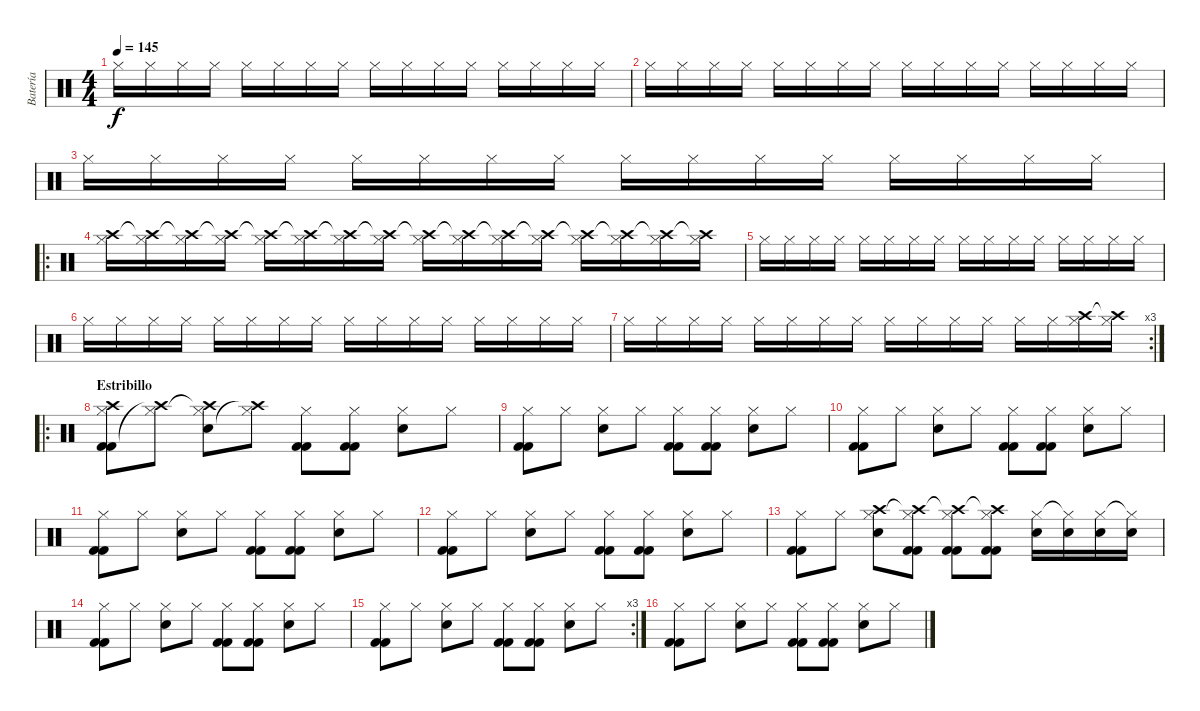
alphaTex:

\track ("Batería" "Batería") {instrument percussion}
\staff {score}
\articulation defaults
\ts (4 4)
\tempo 145
\clef neutral
\ks c "Hi-Hat (closed)".16{dy f} "Hi-Hat (closed)".16 "Hi-Hat (closed)".16 "Hi-Hat (closed)".16 "Hi-Hat (closed)".16 "Hi-Hat (closed)".16 "Hi-Hat (closed)".16 "Hi-Hat (closed)".16 "Hi-Hat (closed)".16 "Hi-Hat (closed)".16 "Hi-Hat (closed)".16 "Hi-Hat (closed)".16 "Hi-Hat (closed)".16 "Hi-Hat (closed)".16 "Hi-Hat (closed)".16 "Hi-Hat (closed)".16
|
"Hi-Hat (closed)".16 "Hi-Hat (closed)".16 "Hi-Hat (closed)".16 "Hi-Hat (closed)".16 "Hi-Hat (closed)".16 "Hi-Hat (closed)".16 "Hi-Hat (closed)".16 "Hi-Hat (closed)".16 "Hi-Hat (closed)".16 "Hi-Hat (closed)".16 "Hi-Hat (closed)".16 "Hi-Hat (closed)".16 "Hi-Hat (closed)".16 "Hi-Hat (closed)".16 "Hi-Hat (closed)".16 "Hi-Hat (closed)".16 |
"Hi-Hat (closed)".16 "Hi-Hat (closed)".16 "Hi-Hat (closed)".16 "Hi-Hat (closed)".16 "Hi-Hat (closed)".16 "Hi-Hat (closed)".16 "Hi-Hat (closed)".16 "Hi-Hat (closed)".16 "Hi-Hat (closed)".16 "Hi-Hat (closed)".16 "Hi-Hat (closed)".16 "Hi-Hat (closed)".16 "Hi-Hat (closed)".16 "Hi-Hat (closed)".16 "Hi-Hat (closed)".16 "Hi-Hat (closed)".16 |
\ro
("Crash high (hit)" "Hi-Hat (closed)").16 ("Crash high (hit)"{t} "Hi-Hat (closed)").16 ("Crash high (hit)"{t} "Hi-Hat (closed)").16 ("Crash high (hit)"{t} "Hi-Hat (closed)").16 ("Crash high (hit)"{t} "Hi-Hat (closed)").16 ("Crash high (hit)"{t} "Hi-Hat (closed)").16 ("Crash high (hit)"{t} "Hi-Hat (closed)").16 ("Crash high (hit)"{t} "Hi-Hat (closed)").16 ("Crash high (hit)"{t} "Hi-Hat (closed)").16 ("Crash high (hit)"{t} "Hi-Hat (closed)").16 ("Crash high (hit)"{t} "Hi-Hat (closed)").16 ("Crash high (hit)"{t} "Hi-Hat (closed)").16 ("Crash high (hit)"{t} "Hi-Hat (closed)").16 ("Crash high (hit)"{t} "Hi-Hat (closed)").16 ("Crash high (hit)"{t} "Hi-Hat (closed)").16 ("Crash high (hit)"{t} "Hi-Hat (closed)").16 |
"Hi-Hat (closed)".16 "Hi-Hat (closed)".16 "Hi-Hat (closed)".16 "Hi-Hat (closed)".16 "Hi-Hat (closed)".16 "Hi-Hat (closed)".16 "Hi-Hat (closed)".16 "Hi-Hat (closed)".16 "Hi-Hat (closed)".16 "Hi-Hat (closed)".16 "Hi-Hat (closed)".16 "Hi-Hat (closed)".16 "Hi-Hat (closed)".16 "Hi-Hat (closed)".16 "Hi-Hat (closed)".16 "Hi-Hat (closed)".16 |
"Hi-Hat (closed)".16 "Hi-Hat (closed)".16 "Hi-Hat (closed)".16 "Hi-Hat (closed)".16 "Hi-Hat (closed)".16 "Hi-Hat (closed)".16 "Hi-Hat (closed)".16 "Hi-Hat (closed)".16 "Hi-Hat (closed)".16 "Hi-Hat (closed)".16 "Hi-Hat (closed)".16 "Hi-Hat (closed)".16 "Hi-Hat (closed)".16 "Hi-Hat (closed)".16 "Hi-Hat (closed)".16 "Hi-Hat (closed)".16 |
\rc 3 "Hi-Hat (closed)".16 "Hi-Hat (closed)".16 "Hi-Hat (closed)".16 "Hi-Hat (closed)".16 "Hi-Hat (closed)".16 "Hi-Hat (closed)".16 "Hi-Hat (closed)".16 "Hi-Hat (closed)".16 "Hi-Hat (closed)".16 "Hi-Hat (closed)".16 "Hi-Hat (closed)".16 "Hi-Hat (closed)".16 "Hi-Hat (closed)".16 "Hi-Hat (closed)".16
("Crash high (hit)" "Hi-Hat (closed)").16 ("Crash high (hit)"{t} "Hi-Hat (closed)").16 |
\ro
\section ("" "Estribillo")
("Kick (hit) 2" "Kick (hit) 2" "Crash high (hit)" "Hi-Hat (closed)").8 ("Crash high (hit)"{t} "Hi-Hat (closed)").8 ("Snare (hit) 2" "Crash high (hit)"{t} "Hi-Hat (closed)").8 ("Crash high (hit)"{t} "Hi-Hat (closed)").8 ("Kick (hit) 2" "Kick (hit) 2" "Hi-Hat (closed)").8 ("Kick (hit) 2" "Kick (hit) 2" "Hi-Hat (closed)").8 ("Snare (hit) 2" "Hi-Hat (closed)").8 "Hi-Hat (closed)".8 |
("Kick (hit) 2" "Kick (hit) 2" "Hi-Hat (closed)").8 "Hi-Hat (closed)".8 ("Snare (hit) 2" "Hi-Hat (closed)").8 "Hi-Hat (closed)".8 ("Kick (hit) 2" "Kick (hit) 2" "Hi-Hat (closed)").8 ("Kick (hit) 2" "Kick (hit) 2" "Hi-Hat (closed)").8 ("Snare (hit) 2" "Hi-Hat (closed)").8 "Hi-Hat (closed)".8 |
("Kick (hit) 2" "Kick (hit) 2" "Hi-Hat (closed)").8 "Hi-Hat (closed)".8 ("Snare (hit) 2" "Hi-Hat (closed)").8 "Hi-Hat (closed)".8 ("Kick (hit) 2" "Kick (hit) 2" "Hi-Hat (closed)").8 ("Kick (hit) 2" "Kick (hit) 2" "Hi-Hat (closed)").8 ("Snare (hit) 2" "Hi-Hat (closed)").8 "Hi-Hat (closed)".8 |
("Kick (hit) 2" "Kick (hit) 2" "Hi-Hat (closed)").8 "Hi-Hat (closed)".8 ("Snare (hit) 2" "Hi-Hat (closed)").8 "Hi-Hat (closed)".8 ("Kick (hit) 2" "Kick (hit) 2" "Hi-Hat (closed)").8 ("Kick (hit) 2" "Kick (hit) 2" "Hi-Hat (closed)").8 ("Snare (hit) 2" "Hi-Hat (closed)").8 "Hi-Hat (closed)".8 |
("Kick (hit) 2" "Kick (hit) 2" "Hi-Hat (closed)").8 "Hi-Hat (closed)".8 ("Snare (hit) 2" "Hi-Hat (closed)").8 "Hi-Hat (closed)".8 ("Kick (hit) 2" "Kick (hit) 2" "Hi-Hat (closed)").8 ("Kick (hit) 2" "Kick (hit) 2" "Hi-Hat (closed)").8 ("Snare (hit) 2" "Hi-Hat (closed)").8 "Hi-Hat (closed)".8 |
("Kick (hit) 2" "Kick (hit) 2" "Hi-Hat (closed)").8 "Hi-Hat (closed)".8 ("Snare (hit) 2" "Crash high (hit)" "Hi-Hat (closed)").8 ("Kick (hit) 2" "Kick (hit) 2" "Crash high (hit)"{t} "Hi-Hat (closed)").8 ("Kick (hit) 2" "Kick (hit) 2" "Crash high (hit)"{t} "Hi-Hat (closed)").8 ("Kick (hit) 2" "Kick (hit) 2" "Crash high (hit)"{t} "Hi-Hat (closed)").8 ("Snare (hit) 2" "Hi-Hat (closed)").16 ("Snare (hit) 2" "Hi-Hat (closed)"{t}).16 ("Snare (hit) 2" "Hi-Hat (closed)").16 ("Snare (hit) 2" "Hi-Hat (closed)"{t}).16 |
("Kick (hit) 2" "Kick (hit) 2" "Hi-Hat (closed)").8 "Hi-Hat (closed)".8 ("Snare (hit) 2" "Hi-Hat (closed)").8 "Hi-Hat (closed)".8 ("Kick (hit) 2" "Kick (hit) 2" "Hi-Hat (closed)").8 ("Kick (hit) 2" "Kick (hit) 2" "Hi-Hat (closed)").8 ("Snare (hit) 2" "Hi-Hat (closed)").8 "Hi-Hat (closed)".8 |
\rc 3
("Kick (hit) 2" "Kick (hit) 2" "Hi-Hat (closed)").8 "Hi-Hat (closed)".8 ("Snare (hit) 2" "Hi-Hat (closed)").8 "Hi-Hat (closed)".8 ("Kick (hit) 2" "Kick (hit) 2" "Hi-Hat (closed)").8 ("Kick (hit) 2" "Kick (hit) 2" "Hi-Hat (closed)").8 ("Snare (hit) 2" "Hi-Hat (closed)").8 "Hi-Hat (closed)".8 |
("Kick (hit) 2" "Kick (hit) 2" "Hi-Hat (closed)").8 "Hi-Hat (closed)".8 ("Snare (hit) 2" "Hi-Hat (closed)").8 "Hi-Hat (closed)".8 ("Kick (hit) 2" "Kick (hit) 2" "Hi-Hat (closed)").8 ("Kick (hit) 2" "Kick (hit) 2" "Hi-Hat (closed)").8 ("Snare (hit) 2" "Hi-Hat (closed)").8 "Hi-Hat (closed)".8
